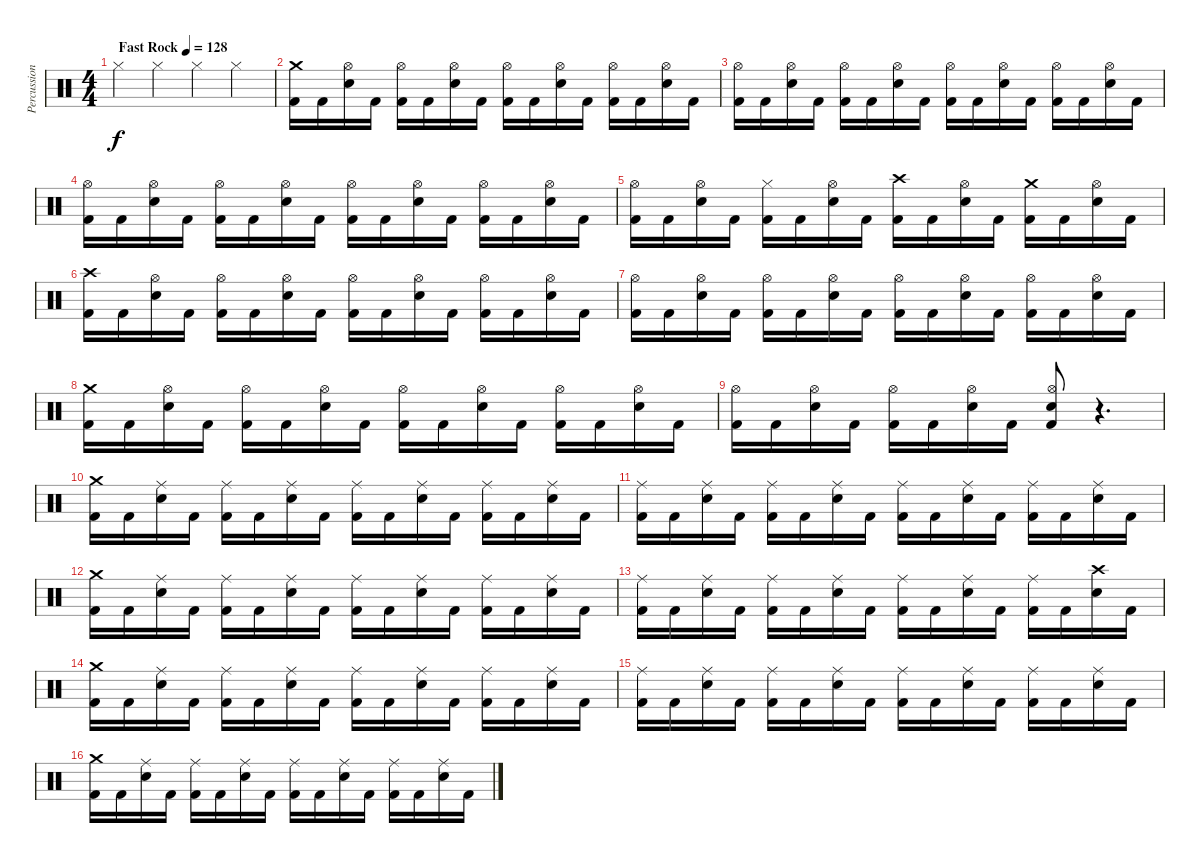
\track ("Percussion" "Percussion") {instrument percussion}
\staff {score}
\articulation defaults
\ts (4 4)
\tempo (128 "Fast Rock")
\clef neutral
\ks c "Hi-Hat (closed)".4{dy f} "Hi-Hat (closed)".4 "Hi-Hat (closed)".4 "Hi-Hat (closed)".4
|
("Crash medium (hit)" "Kick (hit) 2").16 "Kick (hit) 2".16 ("Hi-Hat (open)" "Snare (hit) 2").16 "Kick (hit) 2".16 ("Hi-Hat (open)" "Kick (hit) 2").16 "Kick (hit) 2".16 ("Hi-Hat (open)" "Snare (hit) 2").16 "Kick (hit) 2".16 ("Hi-Hat (open)" "Kick (hit) 2").16 "Kick (hit) 2".16 ("Hi-Hat (open)" "Snare (hit) 2").16 "Kick (hit) 2".16 ("Hi-Hat (open)" "Kick (hit) 2").16 "Kick (hit) 2".16 ("Hi-Hat (open)" "Snare (hit) 2").16 "Kick (hit) 2".16 |
("Hi-Hat (open)" "Kick (hit) 2").16 "Kick (hit) 2".16 ("Hi-Hat (open)" "Snare (hit) 2").16 "Kick (hit) 2".16 ("Hi-Hat (open)" "Kick (hit) 2").16 "Kick (hit) 2".16 ("Hi-Hat (open)" "Snare (hit) 2").16 "Kick (hit) 2".16 ("Hi-Hat (open)" "Kick (hit) 2").16 "Kick (hit) 2".16 ("Hi-Hat (open)" "Snare (hit) 2").16 "Kick (hit) 2".16 ("Hi-Hat (open)" "Kick (hit) 2").16 "Kick (hit) 2".16 ("Hi-Hat (open)" "Snare (hit) 2").16 "Kick (hit) 2".16 |
("Hi-Hat (open)" "Kick (hit) 2").16 "Kick (hit) 2".16 ("Hi-Hat (open)" "Snare (hit) 2").16 "Kick (hit) 2".16 ("Hi-Hat (open)" "Kick (hit) 2").16 "Kick (hit) 2".16 ("Hi-Hat (open)" "Snare (hit) 2").16 "Kick (hit) 2".16 ("Hi-Hat (open)" "Kick (hit) 2").16 "Kick (hit) 2".16 ("Hi-Hat (open)" "Snare (hit) 2").16 "Kick (hit) 2".16 ("Hi-Hat (open)" "Kick (hit) 2").16 "Kick (hit) 2".16 ("Hi-Hat (open)" "Snare (hit) 2").16 "Kick (hit) 2".16 |
("Hi-Hat (open)" "Kick (hit) 2").16 "Kick (hit) 2".16 ("Hi-Hat (open)" "Snare (hit) 2").16 "Kick (hit) 2".16 ("Hi-Hat (closed)" "Kick (hit) 2").16 "Kick (hit) 2".16 ("Hi-Hat (open)" "Snare (hit) 2").16 "Kick (hit) 2".16 ("Crash high (hit)" "Kick (hit) 2").16 "Kick (hit) 2".16 ("Hi-Hat (open)" "Snare (hit) 2").16 "Kick (hit) 2".16 ("Crash medium (hit)" "Kick (hit) 2").16 "Kick (hit) 2".16 ("Hi-Hat (open)" "Snare (hit) 2").16 "Kick (hit) 2".16 |
("Crash high (hit)" "Kick (hit) 2").16 "Kick (hit) 2".16 ("Hi-Hat (open)" "Snare (hit) 2").16 "Kick (hit) 2".16 ("Hi-Hat (open)" "Kick (hit) 2").16 "Kick (hit) 2".16 ("Hi-Hat (open)" "Snare (hit) 2").16 "Kick (hit) 2".16 ("Hi-Hat (open)" "Kick (hit) 2").16 "Kick (hit) 2".16 ("Hi-Hat (open)" "Snare (hit) 2").16 "Kick (hit) 2".16 ("Hi-Hat (open)" "Kick (hit) 2").16 "Kick (hit) 2".16 ("Hi-Hat (open)" "Snare (hit) 2").16 "Kick (hit) 2".16 |
("Hi-Hat (open)" "Kick (hit) 2").16 "Kick (hit) 2".16 ("Hi-Hat (open)" "Snare (hit) 2").16 "Kick (hit) 2".16 ("Hi-Hat (open)" "Kick (hit) 2").16 "Kick (hit) 2".16 ("Hi-Hat (open)" "Snare (hit) 2").16 "Kick (hit) 2".16 ("Hi-Hat (open)" "Kick (hit) 2").16 "Kick (hit) 2".16 ("Hi-Hat (open)" "Snare (hit) 2").16 "Kick (hit) 2".16 ("Hi-Hat (open)" "Kick (hit) 2").16 "Kick (hit) 2".16 ("Hi-Hat (open)" "Snare (hit) 2").16 "Kick (hit) 2".16 |
("Crash medium (hit)" "Kick (hit) 2").16 "Kick (hit) 2".16 ("Hi-Hat (open)" "Snare (hit) 2").16 "Kick (hit) 2".16 ("Hi-Hat (open)" "Kick (hit) 2").16 "Kick (hit) 2".16 ("Hi-Hat (open)" "Snare (hit) 2").16 "Kick (hit) 2".16 ("Hi-Hat (open)" "Kick (hit) 2").16 "Kick (hit) 2".16 ("Hi-Hat (open)" "Snare (hit) 2").16 "Kick (hit) 2".16 ("Hi-Hat (open)" "Kick (hit) 2").16 "Kick (hit) 2".16 ("Hi-Hat (open)" "Snare (hit) 2").16 "Kick (hit) 2".16 |
("Hi-Hat (open)" "Kick (hit) 2").16 "Kick (hit) 2".16 ("Hi-Hat (open)" "Snare (hit) 2").16 "Kick (hit) 2".16 ("Hi-Hat (open)" "Kick (hit) 2").16 "Kick (hit) 2".16 ("Hi-Hat (open)" "Snare (hit) 2").16 "Kick (hit) 2".16 ("Hi-Hat (open)" "Snare (hit) 2" "Kick (hit) 2").8 r.4{d} |
("Crash medium (hit)" "Kick (hit) 2").16 "Kick (hit) 2".16 ("Ride (middle)" "Snare (hit) 2").16 "Kick (hit) 2".16 ("Ride (middle)" "Kick (hit) 2").16 "Kick (hit) 2".16 ("Ride (middle)" "Snare (hit) 2").16 "Kick (hit) 2".16 ("Ride (middle)" "Kick (hit) 2").16 "Kick (hit) 2".16 ("Ride (middle)" "Snare (hit) 2").16 "Kick (hit) 2".16 ("Ride (middle)" "Kick (hit) 2").16 "Kick (hit) 2".16 ("Ride (middle)" "Snare (hit) 2").16 "Kick (hit) 2".16 |
("Ride (middle)" "Kick (hit) 2").16 "Kick (hit) 2".16 ("Ride (middle)" "Snare (hit) 2").16 "Kick (hit) 2".16 ("Ride (middle)" "Kick (hit) 2").16 "Kick (hit) 2".16 ("Ride (middle)" "Snare (hit) 2").16 "Kick (hit) 2".16 ("Ride (middle)" "Kick (hit) 2").16 "Kick (hit) 2".16 ("Ride (middle)" "Snare (hit) 2").16 "Kick (hit) 2".16 ("Ride (middle)" "Kick (hit) 2").16 "Kick (hit) 2".16 ("Ride (middle)" "Snare (hit) 2").16 "Kick (hit) 2".16 |
("Crash medium (hit)" "Kick (hit) 2").16 "Kick (hit) 2".16 ("Ride (middle)" "Snare (hit) 2").16 "Kick (hit) 2".16 ("Ride (middle)" "Kick (hit) 2").16 "Kick (hit) 2".16 ("Ride (middle)" "Snare (hit) 2").16 "Kick (hit) 2".16 ("Ride (middle)" "Kick (hit) 2").16 "Kick (hit) 2".16 ("Ride (middle)" "Snare (hit) 2").16 "Kick (hit) 2".16 ("Ride (middle)" "Kick (hit) 2").16 "Kick (hit) 2".16 ("Ride (middle)" "Snare (hit) 2").16 "Kick (hit) 2".16 |
("Ride (middle)" "Kick (hit) 2").16 "Kick (hit) 2".16 ("Ride (middle)" "Snare (hit) 2").16 "Kick (hit) 2".16 ("Ride (middle)" "Kick (hit) 2").16 "Kick (hit) 2".16 ("Ride (middle)" "Snare (hit) 2").16 "Kick (hit) 2".16 ("Ride (middle)" "Kick (hit) 2").16 "Kick (hit) 2".16 ("Ride (middle)" "Snare (hit) 2").16 "Kick (hit) 2".16 ("Ride (middle)" "Kick (hit) 2").16 "Kick (hit) 2".16 ("Crash high (hit)" "Snare (hit) 2").16 "Kick (hit) 2".16 |
("Crash medium (hit)" "Kick (hit) 2").16 "Kick (hit) 2".16 ("Ride (middle)" "Snare (hit) 2").16 "Kick (hit) 2".16 ("Ride (middle)" "Kick (hit) 2").16 "Kick (hit) 2".16 ("Ride (middle)" "Snare (hit) 2").16 "Kick (hit) 2".16 ("Ride (middle)" "Kick (hit) 2").16 "Kick (hit) 2".16 ("Ride (middle)" "Snare (hit) 2").16 "Kick (hit) 2".16 ("Ride (middle)" "Kick (hit) 2").16 "Kick (hit) 2".16 ("Ride (middle)" "Snare (hit) 2").16 "Kick (hit) 2".16 |
("Ride (middle)" "Kick (hit) 2").16 "Kick (hit) 2".16 ("Ride (middle)" "Snare (hit) 2").16 "Kick (hit) 2".16 ("Ride (middle)" "Kick (hit) 2").16 "Kick (hit) 2".16 ("Ride (middle)" "Snare (hit) 2").16 "Kick (hit) 2".16 ("Ride (middle)" "Kick (hit) 2").16 "Kick (hit) 2".16 ("Ride (middle)" "Snare (hit) 2").16 "Kick (hit) 2".16 ("Ride (middle)" "Kick (hit) 2").16 "Kick (hit) 2".16 ("Ride (middle)" "Snare (hit) 2").16 "Kick (hit) 2".16 |
("Crash medium (hit)" "Kick (hit) 2").16 "Kick (hit) 2".16 ("Ride (middle)" "Snare (hit) 2").16 "Kick (hit) 2".16 ("Ride (middle)" "Kick (hit) 2").16 "Kick (hit) 2".16 ("Ride (middle)" "Snare (hit) 2").16 "Kick (hit) 2".16 ("Ride (middle)" "Kick (hit) 2").16 "Kick (hit) 2".16 ("Ride (middle)" "Snare (hit) 2").16 "Kick (hit) 2".16 ("Ride (middle)" "Kick (hit) 2").16 "Kick (hit) 2".16 ("Ride (middle)" "Snare (hit) 2").16 "Kick (hit) 2".16
